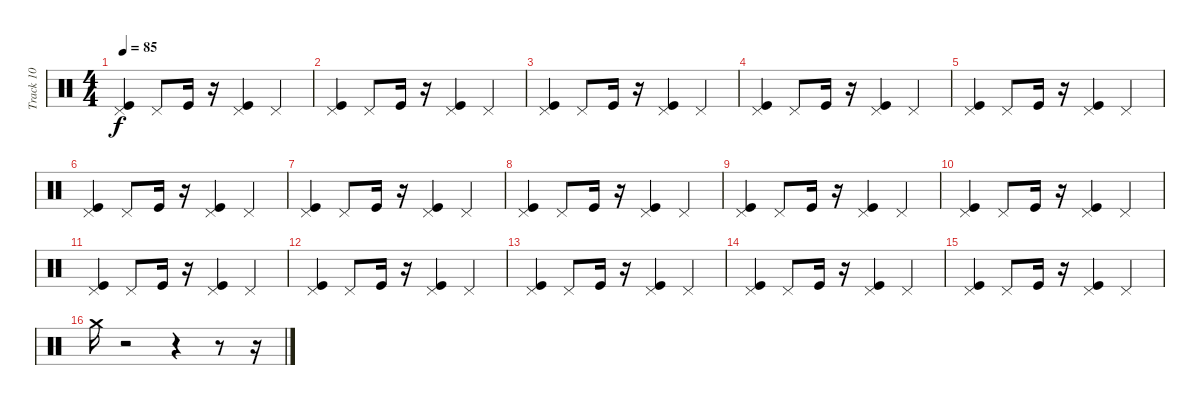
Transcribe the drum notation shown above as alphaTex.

\track ("Track 10" "Track 10") {instrument percussion}
\staff {score}
\articulation defaults
\ts (4 4)
\tempo 85
\clef neutral
\ks c
("Kick (hit)" "Pedal Hi-Hat (hit)").4{dy f} "Pedal Hi-Hat (hit)".8 "Kick (hit)".16 r.16 ("Kick (hit)" "Pedal Hi-Hat (hit)").4 "Pedal Hi-Hat (hit)".4 |
("Kick (hit)" "Pedal Hi-Hat (hit)").4 "Pedal Hi-Hat (hit)".8 "Kick (hit)".16 r.16 ("Kick (hit)" "Pedal Hi-Hat (hit)").4 "Pedal Hi-Hat (hit)".4 |
("Kick (hit)" "Pedal Hi-Hat (hit)").4 "Pedal Hi-Hat (hit)".8 "Kick (hit)".16 r.16 ("Kick (hit)" "Pedal Hi-Hat (hit)").4 "Pedal Hi-Hat (hit)".4 |
("Kick (hit)" "Pedal Hi-Hat (hit)").4 "Pedal Hi-Hat (hit)".8 "Kick (hit)".16 r.16 ("Kick (hit)" "Pedal Hi-Hat (hit)").4 "Pedal Hi-Hat (hit)".4 |
("Kick (hit)" "Pedal Hi-Hat (hit)").4 "Pedal Hi-Hat (hit)".8 "Kick (hit)".16 r.16 ("Kick (hit)" "Pedal Hi-Hat (hit)").4 "Pedal Hi-Hat (hit)".4 |
("Kick (hit)" "Pedal Hi-Hat (hit)").4 "Pedal Hi-Hat (hit)".8 "Kick (hit)".16 r.16 ("Kick (hit)" "Pedal Hi-Hat (hit)").4 "Pedal Hi-Hat (hit)".4 |
("Kick (hit)" "Pedal Hi-Hat (hit)").4 "Pedal Hi-Hat (hit)".8 "Kick (hit)".16 r.16 ("Kick (hit)" "Pedal Hi-Hat (hit)").4 "Pedal Hi-Hat (hit)".4 |
("Kick (hit)" "Pedal Hi-Hat (hit)").4 "Pedal Hi-Hat (hit)".8 "Kick (hit)".16 r.16 ("Kick (hit)" "Pedal Hi-Hat (hit)").4 "Pedal Hi-Hat (hit)".4 |
("Kick (hit)" "Pedal Hi-Hat (hit)").4 "Pedal Hi-Hat (hit)".8 "Kick (hit)".16 r.16 ("Kick (hit)" "Pedal Hi-Hat (hit)").4 "Pedal Hi-Hat (hit)".4 |
("Kick (hit)" "Pedal Hi-Hat (hit)").4 "Pedal Hi-Hat (hit)".8 "Kick (hit)".16 r.16 ("Kick (hit)" "Pedal Hi-Hat (hit)").4 "Pedal Hi-Hat (hit)".4 |
("Kick (hit)" "Pedal Hi-Hat (hit)").4 "Pedal Hi-Hat (hit)".8 "Kick (hit)".16 r.16 ("Kick (hit)" "Pedal Hi-Hat (hit)").4 "Pedal Hi-Hat (hit)".4 |
("Kick (hit)" "Pedal Hi-Hat (hit)").4 "Pedal Hi-Hat (hit)".8 "Kick (hit)".16 r.16 ("Kick (hit)" "Pedal Hi-Hat (hit)").4 "Pedal Hi-Hat (hit)".4 |
("Kick (hit)" "Pedal Hi-Hat (hit)").4 "Pedal Hi-Hat (hit)".8 "Kick (hit)".16 r.16 ("Kick (hit)" "Pedal Hi-Hat (hit)").4 "Pedal Hi-Hat (hit)".4 |
("Kick (hit)" "Pedal Hi-Hat (hit)").4 "Pedal Hi-Hat (hit)".8 "Kick (hit)".16 r.16 ("Kick (hit)" "Pedal Hi-Hat (hit)").4 "Pedal Hi-Hat (hit)".4 |
("Kick (hit)" "Pedal Hi-Hat (hit)").4 "Pedal Hi-Hat (hit)".8 "Kick (hit)".16 r.16 ("Kick (hit)" "Pedal Hi-Hat (hit)").4 "Pedal Hi-Hat (hit)".4 |
"Crash medium (hit)".16 r.2 r.4 r.8 r.16
